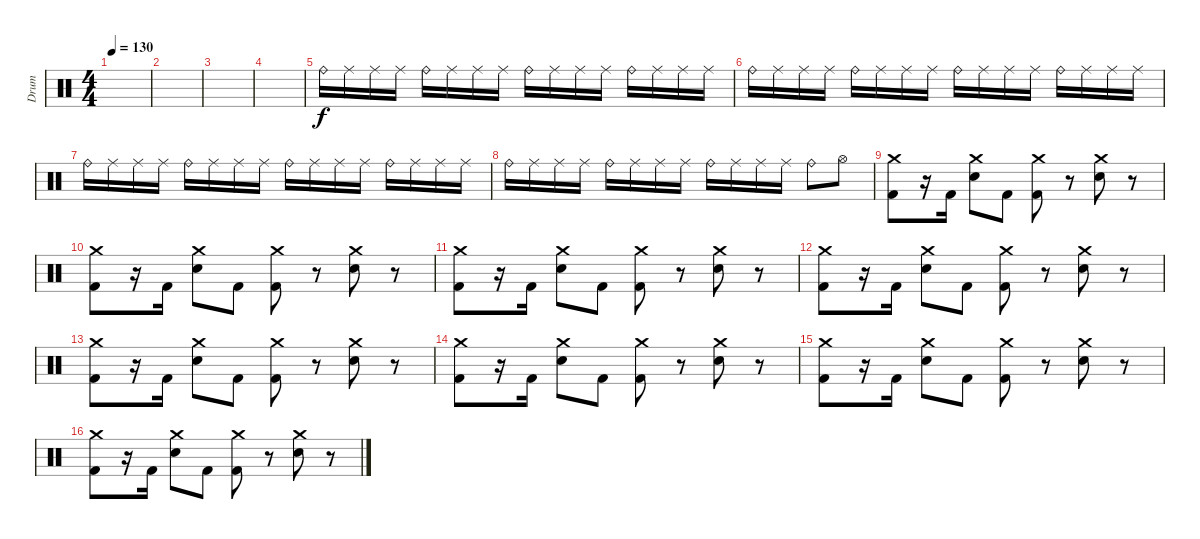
\track ("Drum" "Drum") {instrument percussion}
\staff {score}
\articulation defaults
\ts (4 4)
\tempo 130
\clef neutral
\ks c
|
|
|
|
"Ride (bell)".16 "Ride (middle)".16 "Ride (middle)".16 "Ride (middle)".16 "Ride (bell)".16 "Ride (middle)".16 "Ride (middle)".16 "Ride (middle)".16 "Ride (bell)".16 "Ride (middle)".16 "Ride (middle)".16 "Ride (middle)".16 "Ride (bell)".16 "Ride (middle)".16 "Ride (middle)".16 "Ride (middle)".16 |
"Ride (bell)".16 "Ride (middle)".16 "Ride (middle)".16 "Ride (middle)".16 "Ride (bell)".16 "Ride (middle)".16 "Ride (middle)".16 "Ride (middle)".16 "Ride (bell)".16 "Ride (middle)".16 "Ride (middle)".16 "Ride (middle)".16 "Ride (bell)".16 "Ride (middle)".16 "Ride (middle)".16 "Ride (middle)".16 |
"Ride (bell)".16 "Ride (middle)".16 "Ride (middle)".16 "Ride (middle)".16 "Ride (bell)".16 "Ride (middle)".16 "Ride (middle)".16 "Ride (middle)".16 "Ride (bell)".16 "Ride (middle)".16 "Ride (middle)".16 "Ride (middle)".16 "Ride (bell)".16 "Ride (middle)".16 "Ride (middle)".16 "Ride (middle)".16 |
"Ride (bell)".16 "Ride (middle)".16 "Ride (middle)".16 "Ride (middle)".16 "Ride (bell)".16 "Ride (middle)".16 "Ride (middle)".16 "Ride (middle)".16 "Ride (bell)".16 "Ride (middle)".16 "Ride (middle)".16 "Ride (middle)".16 "Ride (bell)".8 "Hi-Hat (open)".8 |
("Crash medium (hit)" "Kick (hit) 2").8 r.16 "Kick (hit) 2".16 ("Crash medium (hit)" "Snare (hit) 2").8 "Kick (hit) 2".8 ("Crash medium (hit)" "Kick (hit) 2").8 r.8 ("Crash medium (hit)" "Snare (hit) 2").8 r.8 |
("Crash medium (hit)" "Kick (hit) 2").8 r.16 "Kick (hit) 2".16 ("Crash medium (hit)" "Snare (hit) 2").8 "Kick (hit) 2".8 ("Crash medium (hit)" "Kick (hit) 2").8 r.8 ("Crash medium (hit)" "Snare (hit) 2").8 r.8 |
("Crash medium (hit)" "Kick (hit) 2").8 r.16 "Kick (hit) 2".16 ("Crash medium (hit)" "Snare (hit) 2").8 "Kick (hit) 2".8 ("Crash medium (hit)" "Kick (hit) 2").8 r.8 ("Crash medium (hit)" "Snare (hit) 2").8 r.8 |
("Crash medium (hit)" "Kick (hit) 2").8 r.16 "Kick (hit) 2".16 ("Crash medium (hit)" "Snare (hit) 2").8 "Kick (hit) 2".8 ("Crash medium (hit)" "Kick (hit) 2").8 r.8 ("Crash medium (hit)" "Snare (hit) 2").8 r.8 |
("Crash medium (hit)" "Kick (hit) 2").8 r.16 "Kick (hit) 2".16 ("Crash medium (hit)" "Snare (hit) 2").8 "Kick (hit) 2".8 ("Crash medium (hit)" "Kick (hit) 2").8 r.8 ("Crash medium (hit)" "Snare (hit) 2").8 r.8 |
("Crash medium (hit)" "Kick (hit) 2").8 r.16 "Kick (hit) 2".16 ("Crash medium (hit)" "Snare (hit) 2").8 "Kick (hit) 2".8 ("Crash medium (hit)" "Kick (hit) 2").8 r.8 ("Crash medium (hit)" "Snare (hit) 2").8 r.8 |
("Crash medium (hit)" "Kick (hit) 2").8 r.16 "Kick (hit) 2".16 ("Crash medium (hit)" "Snare (hit) 2").8 "Kick (hit) 2".8 ("Crash medium (hit)" "Kick (hit) 2").8 r.8 ("Crash medium (hit)" "Snare (hit) 2").8 r.8 |
("Crash medium (hit)" "Kick (hit) 2").8 r.16 "Kick (hit) 2".16 ("Crash medium (hit)" "Snare (hit) 2").8 "Kick (hit) 2".8 ("Crash medium (hit)" "Kick (hit) 2").8 r.8 ("Crash medium (hit)" "Snare (hit) 2").8 r.8
